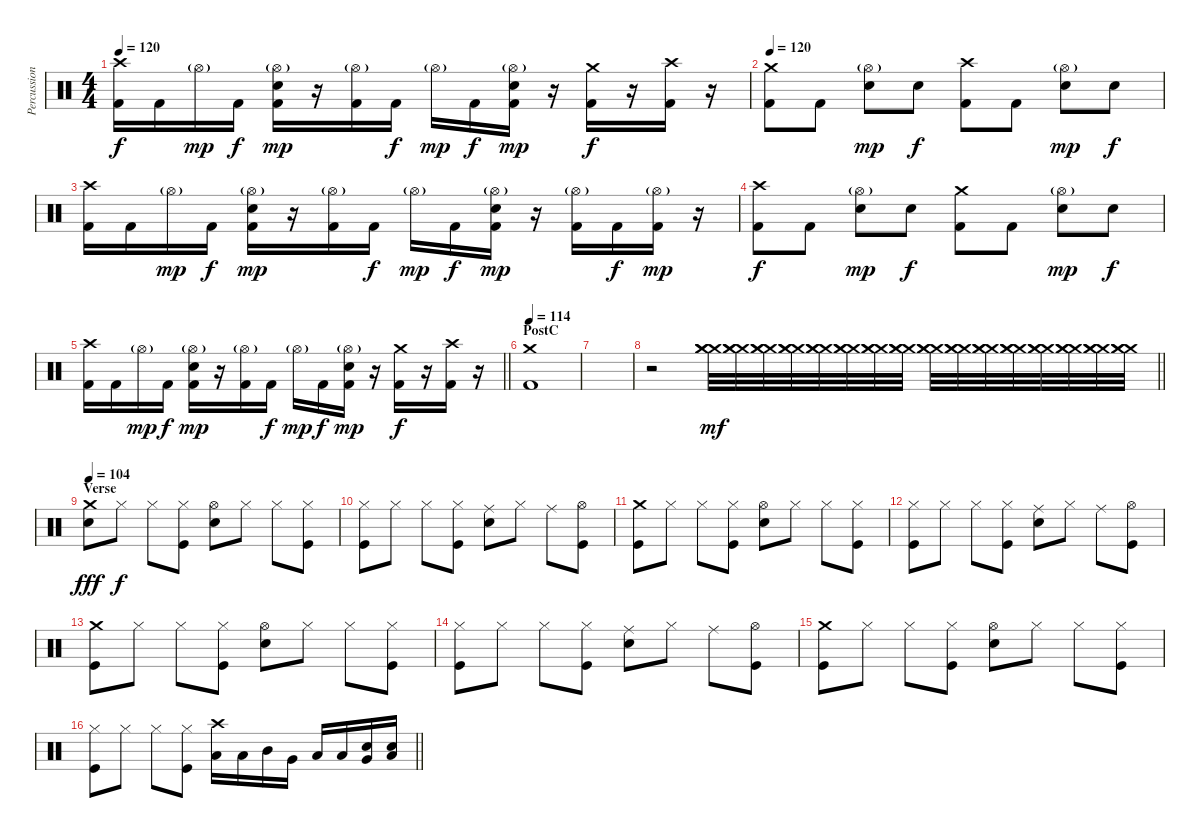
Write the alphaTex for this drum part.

\track ("Percussion" "Percussion") {instrument percussion}
\staff {score}
\articulation defaults
\ts (4 4)
\tempo 120
\clef neutral
\ks c
("Crash high (hit)" "Kick (hit) 2").16{dy f} "Kick (hit) 2".16 "Hi-Hat (open)"{g}.16{dy mp} "Kick (hit) 2".16{dy f} ("Hi-Hat (open)"{g} "Snare (hit) 2" "Kick (hit) 2").16{dy mp} r.16 ("Hi-Hat (open)"{g} "Kick (hit) 2").16 "Kick (hit) 2".16{dy f} "Hi-Hat (open)"{g}.16{dy mp} "Kick (hit) 2".16{dy f} ("Hi-Hat (open)"{g} "Snare (hit) 2" "Kick (hit) 2").16{dy mp} r.16 ("Crash medium (hit)" "Kick (hit) 2").16{dy f} r.16 ("Crash high (hit)" "Kick (hit) 2").16 r.16 |
\tempo 120
("Crash medium (hit)" "Kick (hit) 2").8 "Kick (hit) 2".8 ("Hi-Hat (open)"{g} "Snare (hit) 2").8{dy mp} "Snare (hit) 2".8{dy f} ("Crash high (hit)" "Kick (hit) 2").8 "Kick (hit) 2".8 ("Hi-Hat (open)"{g} "Snare (hit) 2").8{dy mp} "Snare (hit) 2".8{dy f} |
("Crash high (hit)" "Kick (hit) 2").16 "Kick (hit) 2".16 "Hi-Hat (open)"{g}.16{dy mp} "Kick (hit) 2".16{dy f} ("Hi-Hat (open)"{g} "Snare (hit) 2" "Kick (hit) 2").16{dy mp} r.16 ("Hi-Hat (open)"{g} "Kick (hit) 2").16 "Kick (hit) 2".16{dy f} "Hi-Hat (open)"{g}.16{dy mp} "Kick (hit) 2".16{dy f} ("Hi-Hat (open)"{g} "Snare (hit) 2" "Kick (hit) 2").16{dy mp} r.16 ("Hi-Hat (open)"{g} "Kick (hit) 2").16 "Kick (hit) 2".16{dy f} ("Hi-Hat (open)"{g} "Kick (hit) 2").16{dy mp} r.16 |
("Crash high (hit)" "Kick (hit) 2").8{dy f} "Kick (hit) 2".8 ("Hi-Hat (open)"{g} "Snare (hit) 2").8{dy mp} "Snare (hit) 2".8{dy f} ("Crash medium (hit)" "Kick (hit) 2").8 "Kick (hit) 2".8 ("Hi-Hat (open)"{g} "Snare (hit) 2").8{dy mp} "Snare (hit) 2".8{dy f} |
\barLineRight lightlight
("Crash high (hit)" "Kick (hit) 2").16 "Kick (hit) 2".16 "Hi-Hat (open)"{g}.16{dy mp} "Kick (hit) 2".16{dy f} ("Hi-Hat (open)"{g} "Snare (hit) 2" "Kick (hit) 2").16{dy mp} r.16 ("Hi-Hat (open)"{g} "Kick (hit) 2").16 "Kick (hit) 2".16{dy f} "Hi-Hat (open)"{g}.16{dy mp} "Kick (hit) 2".16{dy f} ("Hi-Hat (open)"{g} "Snare (hit) 2" "Kick (hit) 2").16{dy mp} r.16 ("Crash medium (hit)" "Kick (hit) 2").16{dy f} r.16 ("Crash high (hit)" "Kick (hit) 2").16 r.16 |
\section ("" "PostC")
\tempo 114
("Crash medium (hit)" "Kick (hit) 2").1 |
|
\barLineRight lightlight
r.2{volume 0} ("Crash medium (hit)" "Crash medium (hit)" "Crash medium (hit)").32{dy mf volume 13} ("Crash medium (hit)" "Crash medium (hit)" "Crash medium (hit)").32 ("Crash medium (hit)" "Crash medium (hit)" "Crash medium (hit)").32 ("Crash medium (hit)" "Crash medium (hit)" "Crash medium (hit)").32 ("Crash medium (hit)" "Crash medium (hit)" "Crash medium (hit)").32 ("Crash medium (hit)" "Crash medium (hit)" "Crash medium (hit)").32 ("Crash medium (hit)" "Crash medium (hit)" "Crash medium (hit)").32 ("Crash medium (hit)" "Crash medium (hit)" "Crash medium (hit)").32 ("Crash medium (hit)" "Crash medium (hit)" "Crash medium (hit)").32 ("Crash medium (hit)" "Crash medium (hit)" "Crash medium (hit)").32 ("Crash medium (hit)" "Crash medium (hit)" "Crash medium (hit)").32 ("Crash medium (hit)" "Crash medium (hit)" "Crash medium (hit)").32 ("Crash medium (hit)" "Crash medium (hit)" "Crash medium (hit)").32 ("Crash medium (hit)" "Crash medium (hit)" "Crash medium (hit)").32 ("Crash medium (hit)" "Crash medium (hit)" "Crash medium (hit)").32 ("Crash medium (hit)" "Crash medium (hit)" "Crash medium (hit)").32 |
\section ("" "Verse")
\tempo 104
("Crash medium (hit)" "Snare (hit) 2").8{dy fff} "Hi-Hat (closed)".8{dy f} "Hi-Hat (closed)".8 ("Hi-Hat (closed)" "Kick (hit)").8 ("Hi-Hat (open)" "Snare (hit) 2").8 "Hi-Hat (closed)".8 "Hi-Hat (closed)".8 ("Hi-Hat (closed)" "Kick (hit)").8 |
("Hi-Hat (closed)" "Kick (hit)").8 "Hi-Hat (closed)".8 "Hi-Hat (closed)".8 ("Hi-Hat (closed)" "Kick (hit)").8 ("Ride (middle)" "Snare (hit) 2").8 "Hi-Hat (closed)".8 "Ride (middle)".8 ("Hi-Hat (open)" "Kick (hit)").8 |
("Crash medium (hit)" "Kick (hit)").8 "Hi-Hat (closed)".8 "Hi-Hat (closed)".8 ("Hi-Hat (closed)" "Kick (hit)").8 ("Hi-Hat (open)" "Snare (hit) 2").8 "Hi-Hat (closed)".8 "Hi-Hat (closed)".8 ("Hi-Hat (closed)" "Kick (hit)").8 |
("Hi-Hat (closed)" "Kick (hit)").8 "Hi-Hat (closed)".8 "Hi-Hat (closed)".8 ("Hi-Hat (closed)" "Kick (hit)").8 ("Ride (middle)" "Snare (hit) 2").8 "Hi-Hat (closed)".8 "Ride (middle)".8 ("Hi-Hat (open)" "Kick (hit)").8 |
("Crash medium (hit)" "Kick (hit)").8 "Hi-Hat (closed)".8 "Hi-Hat (closed)".8 ("Hi-Hat (closed)" "Kick (hit)").8 ("Hi-Hat (open)" "Snare (hit) 2").8 "Hi-Hat (closed)".8 "Hi-Hat (closed)".8 ("Hi-Hat (closed)" "Kick (hit)").8 |
("Hi-Hat (closed)" "Kick (hit)").8 "Hi-Hat (closed)".8 "Hi-Hat (closed)".8 ("Hi-Hat (closed)" "Kick (hit)").8 ("Ride (middle)" "Snare (hit) 2").8 "Hi-Hat (closed)".8 "Ride (middle)".8 ("Hi-Hat (open)" "Kick (hit)").8 |
("Crash medium (hit)" "Kick (hit)").8 "Hi-Hat (closed)".8 "Hi-Hat (closed)".8 ("Hi-Hat (closed)" "Kick (hit)").8 ("Hi-Hat (open)" "Snare (hit) 2").8 "Hi-Hat (closed)".8 "Hi-Hat (closed)".8 ("Hi-Hat (closed)" "Kick (hit)").8 |
\barLineRight lightlight
("Hi-Hat (closed)" "Kick (hit)").8 "Hi-Hat (closed)".8 "Hi-Hat (closed)".8 ("Hi-Hat (closed)" "Kick (hit)").8 ("Crash high (hit)" "Low Tom (hit)").16 "Low Tom (hit)".16 "Mid Tom (hit)".16 "Very Low Tom (hit)".16 "Low Tom (hit)".16 "Low Tom (hit)".16 ("Snare (hit) 2" "Very Low Tom (hit)").16 ("Snare (hit) 2" "Low Floor Tom (hit)").16
